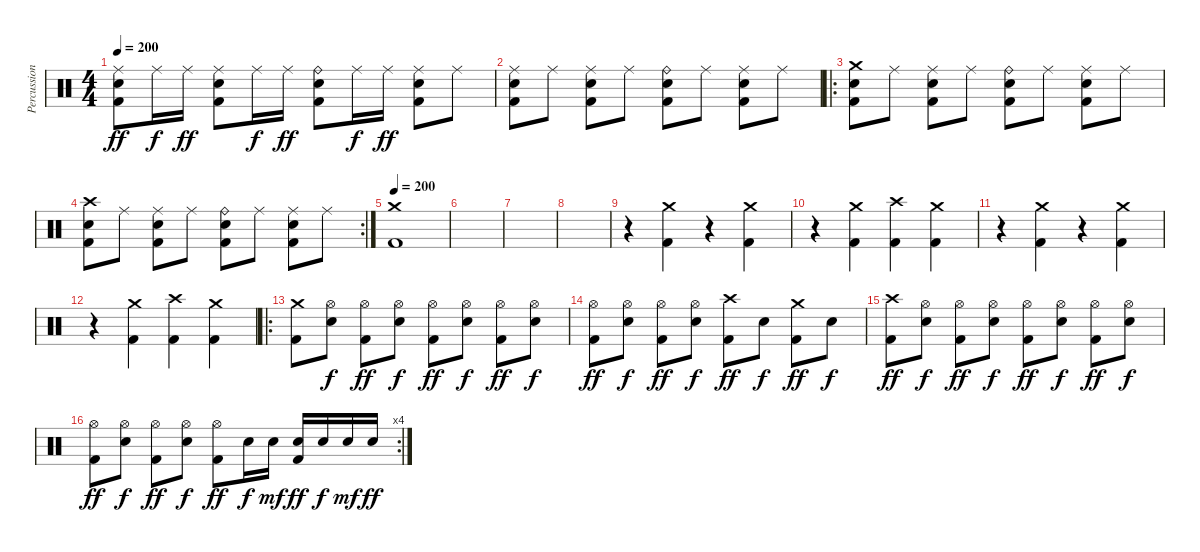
\track ("Percussions" "Percussion") {instrument percussion}
\staff {score}
\articulation defaults
\ts (4 4)
\tempo 200
\clef neutral
\ks c
("Ride (middle)" "Electric Snare (hit)" "Kick (hit) 2").8{dy ff} "Ride (middle)".16{dy f} "Ride (middle)".16{dy ff} ("Ride (middle)" "Electric Snare (hit)" "Kick (hit) 2").8 "Ride (middle)".16{dy f} "Ride (middle)".16{dy ff} ("Ride (bell)" "Electric Snare (hit)" "Kick (hit) 2").8 "Ride (middle)".16{dy f} "Ride (middle)".16{dy ff} ("Ride (middle)" "Electric Snare (hit)" "Kick (hit) 2").8 "Ride (middle)".8 |
("Ride (middle)" "Electric Snare (hit)" "Kick (hit) 2").8 "Ride (middle)".8 ("Ride (middle)" "Electric Snare (hit)" "Kick (hit) 2").8 "Ride (middle)".8 ("Ride (bell)" "Electric Snare (hit)" "Kick (hit) 2").8 "Ride (middle)".8 ("Ride (middle)" "Electric Snare (hit)" "Kick (hit) 2").8 "Ride (middle)".8 |
\ro
("Crash medium (hit)" "Electric Snare (hit)" "Kick (hit) 2").8 "Ride (middle)".8 ("Ride (middle)" "Electric Snare (hit)" "Kick (hit) 2").8 "Ride (middle)".8 ("Ride (bell)" "Electric Snare (hit)" "Kick (hit) 2").8 "Ride (middle)".8 ("Ride (middle)" "Electric Snare (hit)" "Kick (hit) 2").8 "Ride (middle)".8 |
\rc 2
("Crash high (hit)" "Electric Snare (hit)" "Kick (hit) 2").8 "Ride (middle)".8 ("Ride (middle)" "Electric Snare (hit)" "Kick (hit) 2").8 "Ride (middle)".8 ("Ride (bell)" "Electric Snare (hit)" "Kick (hit) 2").8 "Ride (middle)".8 ("Ride (middle)" "Electric Snare (hit)" "Kick (hit) 2").8 "Ride (middle)".8 |
\tempo 200
("Crash medium (hit)" "Kick (hit) 2").1 |
|
|
|
r.4 ("Crash medium (hit)" "Kick (hit) 2").4 r.4 ("Crash medium (hit)" "Kick (hit) 2").4 |
r.4 ("Crash medium (hit)" "Kick (hit) 2").4 ("Crash high (hit)" "Kick (hit) 2").4 ("Crash medium (hit)" "Kick (hit) 2").4 |
r.4 ("Crash medium (hit)" "Kick (hit) 2").4 r.4 ("Crash medium (hit)" "Kick (hit) 2").4 |
r.4 ("Crash medium (hit)" "Kick (hit) 2").4 ("Crash high (hit)" "Kick (hit) 2").4 ("Crash medium (hit)" "Kick (hit) 2").4 |
\ro
("Crash medium (hit)" "Kick (hit) 2").8 ("Hi-Hat (open)" "Electric Snare (hit)").8{dy f} ("Hi-Hat (open)" "Kick (hit) 2").8{dy ff} ("Hi-Hat (open)" "Electric Snare (hit)").8{dy f} ("Hi-Hat (open)" "Kick (hit) 2").8{dy ff} ("Hi-Hat (open)" "Electric Snare (hit)").8{dy f} ("Hi-Hat (open)" "Kick (hit) 2").8{dy ff} ("Hi-Hat (open)" "Electric Snare (hit)").8{dy f} |
("Hi-Hat (open)" "Kick (hit) 2").8{dy ff} ("Hi-Hat (open)" "Electric Snare (hit)").8{dy f} ("Hi-Hat (open)" "Kick (hit) 2").8{dy ff} ("Hi-Hat (open)" "Electric Snare (hit)").8{dy f} ("Crash high (hit)" "Kick (hit) 2").8{dy ff} "Electric Snare (hit)".8{dy f} ("Crash medium (hit)" "Kick (hit) 2").8{dy ff} "Electric Snare (hit)".8{dy f} |
("Crash high (hit)" "Kick (hit) 2").8{dy ff} ("Hi-Hat (open)" "Electric Snare (hit)").8{dy f} ("Hi-Hat (open)" "Kick (hit) 2").8{dy ff} ("Hi-Hat (open)" "Electric Snare (hit)").8{dy f} ("Hi-Hat (open)" "Kick (hit) 2").8{dy ff} ("Hi-Hat (open)" "Electric Snare (hit)").8{dy f} ("Hi-Hat (open)" "Kick (hit) 2").8{dy ff} ("Hi-Hat (open)" "Electric Snare (hit)").8{dy f} |
\rc 4
("Hi-Hat (open)" "Kick (hit) 2").8{dy ff} ("Hi-Hat (open)" "Electric Snare (hit)").8{dy f} ("Hi-Hat (open)" "Kick (hit) 2").8{dy ff} ("Hi-Hat (open)" "Electric Snare (hit)").8{dy f} ("Hi-Hat (open)" "Kick (hit) 2").8{dy ff} "Electric Snare (hit)".16{dy f} "Electric Snare (hit)".16{dy mf} ("Electric Snare (hit)" "Kick (hit) 2").16{dy ff} "Electric Snare (hit)".16{dy f} "Electric Snare (hit)".16{dy mf} "Electric Snare (hit)".16{dy ff}
